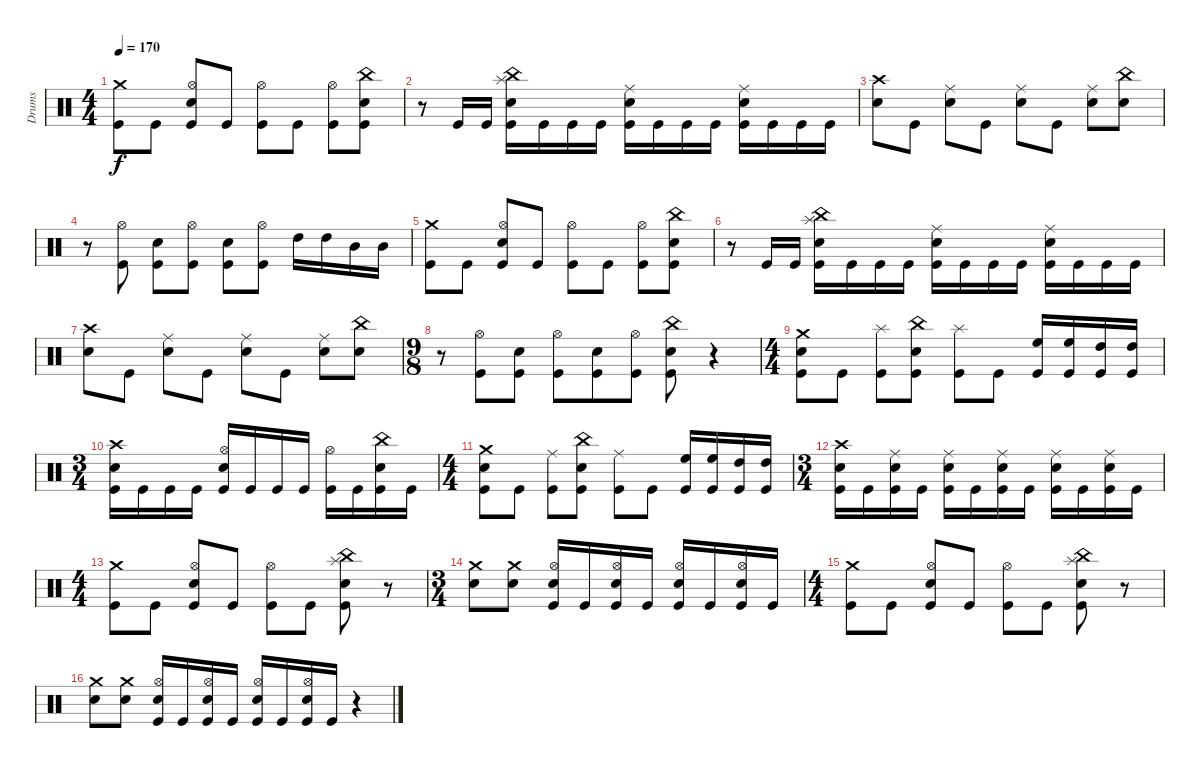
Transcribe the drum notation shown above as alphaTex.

\track ("Drums" "Drums") {instrument percussion}
\staff {score}
\articulation defaults
\ts (4 4)
\tempo 170
\clef neutral
\ks c
("Crash medium (hit)" "Kick (hit)").8{dy f} "Kick (hit)".8 ("Hi-Hat (open)" "Electric Snare (hit)" "Kick (hit)").8 "Kick (hit)".8 ("Hi-Hat (open)" "Kick (hit)").8 "Kick (hit)".8 ("Hi-Hat (open)" "Kick (hit)").8 ("China (hit)" "Electric Snare (hit)" "Kick (hit)").8 |
r.8 "Kick (hit)".16 "Kick (hit)".16 ("Splash (hit)" "China (hit)" "Electric Snare (hit)" "Kick (hit)").16 "Kick (hit)".16 "Kick (hit)".16 "Kick (hit)".16 ("Ride (middle)" "Electric Snare (hit)" "Kick (hit)").16 "Kick (hit)".16 "Kick (hit)".16 "Kick (hit)".16 ("Ride (middle)" "Electric Snare (hit)" "Kick (hit)").16 "Kick (hit)".16 "Kick (hit)".16 "Kick (hit)".16 |
("Crash high (hit)" "Electric Snare (hit)").8 "Kick (hit)".8 ("Ride (middle)" "Electric Snare (hit)").8 "Kick (hit)".8 ("Ride (middle)" "Electric Snare (hit)").8 "Kick (hit)".8 ("Ride (middle)" "Electric Snare (hit)").8 ("China (hit)" "Electric Snare (hit)").8 |
r.8 ("Hi-Hat (open)" "Kick (hit)").8 ("Electric Snare (hit)" "Kick (hit)").8 ("Hi-Hat (open)" "Kick (hit)").8 ("Electric Snare (hit)" "Kick (hit)").8 ("Hi-Hat (open)" "Kick (hit)").8 "High Tom (hit)".16 "High Tom (hit)".16 "Mid Tom (hit)".16 "Mid Tom (hit)".16 |
("Crash medium (hit)" "Kick (hit)").8 "Kick (hit)".8 ("Hi-Hat (open)" "Electric Snare (hit)" "Kick (hit)").8 "Kick (hit)".8 ("Hi-Hat (open)" "Kick (hit)").8 "Kick (hit)".8 ("Hi-Hat (open)" "Kick (hit)").8 ("China (hit)" "Electric Snare (hit)" "Kick (hit)").8 |
r.8 "Kick (hit)".16 "Kick (hit)".16 ("Splash (hit)" "China (hit)" "Electric Snare (hit)" "Kick (hit)").16 "Kick (hit)".16 "Kick (hit)".16 "Kick (hit)".16 ("Ride (middle)" "Electric Snare (hit)" "Kick (hit)").16 "Kick (hit)".16 "Kick (hit)".16 "Kick (hit)".16 ("Ride (middle)" "Electric Snare (hit)" "Kick (hit)").16 "Kick (hit)".16 "Kick (hit)".16 "Kick (hit)".16 |
("Crash high (hit)" "Electric Snare (hit)").8 "Kick (hit)".8 ("Ride (middle)" "Electric Snare (hit)").8 "Kick (hit)".8 ("Ride (middle)" "Electric Snare (hit)").8 "Kick (hit)".8 ("Ride (middle)" "Electric Snare (hit)").8 ("China (hit)" "Electric Snare (hit)").8 |
\ts (9 8)
r.8 ("Hi-Hat (open)" "Kick (hit)").8 ("Electric Snare (hit)" "Kick (hit)").8 ("Hi-Hat (open)" "Kick (hit)").8 ("Electric Snare (hit)" "Kick (hit)").8 ("Hi-Hat (open)" "Kick (hit)").8 ("China (hit)" "Electric Snare (hit)" "Kick (hit)").8 r.4 |
\ts (4 4)
("Crash medium (hit)" "Electric Snare (hit)" "Kick (hit)").8 "Kick (hit)".8 ("Splash (hit)" "Kick (hit)").8 ("China (hit)" "Electric Snare (hit)" "Kick (hit)").8 ("Splash (hit)" "Kick (hit)").8 "Kick (hit)".8 ("High Floor Tom (hit)" "Kick (hit)").16 ("High Floor Tom (hit)" "Kick (hit)").16 ("High Tom (hit)" "Kick (hit)").16 ("High Tom (hit)" "Kick (hit)").16 |
\ts (3 4)
("Crash high (hit)" "Electric Snare (hit)" "Kick (hit)").16 "Kick (hit)".16 "Kick (hit)".16 "Kick (hit)".16 ("Hi-Hat (open)" "Electric Snare (hit)" "Kick (hit)").16 "Kick (hit)".16 "Kick (hit)".16 "Kick (hit)".16 ("Hi-Hat (open)" "Kick (hit)").16 "Kick (hit)".16 ("China (hit)" "Electric Snare (hit)" "Kick (hit)").16 "Kick (hit)".16 |
\ts (4 4)
("Crash medium (hit)" "Electric Snare (hit)" "Kick (hit)").8 "Kick (hit)".8 ("Ride (middle)" "Kick (hit)").8 ("China (hit)" "Electric Snare (hit)" "Kick (hit)").8 ("Ride (middle)" "Kick (hit)").8 "Kick (hit)".8 ("High Floor Tom (hit)" "Kick (hit)").16 ("High Floor Tom (hit)" "Kick (hit)").16 ("High Tom (hit)" "Kick (hit)").16 ("High Tom (hit)" "Kick (hit)").16 |
\ts (3 4)
("Crash high (hit)" "Electric Snare (hit)" "Kick (hit)").16 "Kick (hit)".16 ("Ride (middle)" "Electric Snare (hit)" "Kick (hit)").16 "Kick (hit)".16 ("Ride (middle)" "Electric Snare (hit)" "Kick (hit)").16 "Kick (hit)".16 ("Ride (middle)" "Electric Snare (hit)" "Kick (hit)").16 "Kick (hit)".16 ("Ride (middle)" "Electric Snare (hit)" "Kick (hit)").16 "Kick (hit)".16 ("Ride (middle)" "Electric Snare (hit)" "Kick (hit)").16 "Kick (hit)".16 |
\ts (4 4)
("Crash medium (hit)" "Kick (hit)").8 "Kick (hit)".8 ("Hi-Hat (open)" "Electric Snare (hit)" "Kick (hit)").8 "Kick (hit)".8 ("Hi-Hat (open)" "Kick (hit)").8 "Kick (hit)".8 ("Splash (hit)" "China (hit)" "Electric Snare (hit)" "Kick (hit)").8 r.8 |
\ts (3 4)
("Crash medium (hit)" "Electric Snare (hit)").8 ("Crash medium (hit)" "Electric Snare (hit)").8 ("Hi-Hat (open)" "Electric Snare (hit)" "Kick (hit)").16 "Kick (hit)".16 ("Hi-Hat (open)" "Electric Snare (hit)" "Kick (hit)").16 "Kick (hit)".16 ("Hi-Hat (open)" "Electric Snare (hit)" "Kick (hit)").16 "Kick (hit)".16 ("Hi-Hat (open)" "Electric Snare (hit)" "Kick (hit)").16 "Kick (hit)".16 |
\ts (4 4)
("Crash medium (hit)" "Kick (hit)").8 "Kick (hit)".8 ("Hi-Hat (open)" "Electric Snare (hit)" "Kick (hit)").8 "Kick (hit)".8 ("Hi-Hat (open)" "Kick (hit)").8 "Kick (hit)".8 ("Splash (hit)" "China (hit)" "Electric Snare (hit)" "Kick (hit)").8 r.8 |
("Crash medium (hit)" "Electric Snare (hit)").8 ("Crash medium (hit)" "Electric Snare (hit)").8 ("Hi-Hat (open)" "Electric Snare (hit)" "Kick (hit)").16 "Kick (hit)".16 ("Hi-Hat (open)" "Electric Snare (hit)" "Kick (hit)").16 "Kick (hit)".16 ("Hi-Hat (open)" "Electric Snare (hit)" "Kick (hit)").16 "Kick (hit)".16 ("Hi-Hat (open)" "Electric Snare (hit)" "Kick (hit)").16 "Kick (hit)".16 r.4
